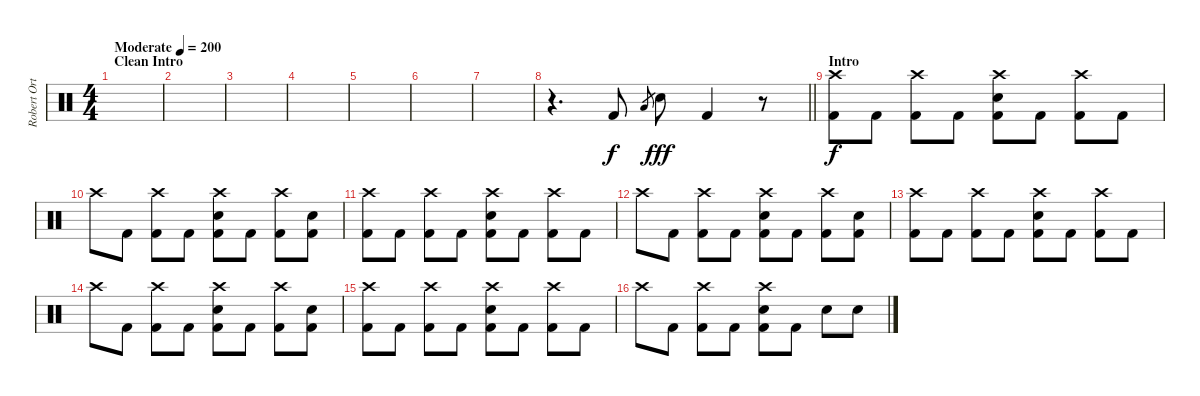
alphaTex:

\track ("Robert Ortiz" "Robert Ort") {instrument percussion}
\staff {score}
\articulation defaults
\ts (4 4)
\section ("" "Clean Intro")
\tempo (200 "Moderate")
\clef neutral
\ks c
|
|
|
|
|
|
|
\barLineRight lightlight
r.4{d volume 16} "Kick (hit) 2".8 "Low Floor Tom (hit)".8{gr dy f} "Electric Snare (hit)".8{dy fff} "Kick (hit) 2".4 r.8 |
\section ("" "Intro")
("Crash high (hit)" "Kick (hit) 2").8{dy f volume 12} "Kick (hit) 2".8 ("Crash high (hit)" "Kick (hit) 2").8 "Kick (hit) 2".8 ("Crash high (hit)" "Electric Snare (hit)" "Kick (hit) 2").8 "Kick (hit) 2".8 ("Crash high (hit)" "Kick (hit) 2").8 "Kick (hit) 2".8 |
"Crash high (hit)".8 "Kick (hit) 2".8 ("Crash high (hit)" "Kick (hit) 2").8 "Kick (hit) 2".8 ("Crash high (hit)" "Electric Snare (hit)" "Kick (hit) 2").8 "Kick (hit) 2".8 ("Crash high (hit)" "Kick (hit) 2").8 ("Electric Snare (hit)" "Kick (hit) 2").8 |
("Crash high (hit)" "Kick (hit) 2").8 "Kick (hit) 2".8 ("Crash high (hit)" "Kick (hit) 2").8 "Kick (hit) 2".8 ("Crash high (hit)" "Electric Snare (hit)" "Kick (hit) 2").8 "Kick (hit) 2".8 ("Crash high (hit)" "Kick (hit) 2").8 "Kick (hit) 2".8 |
"Crash high (hit)".8 "Kick (hit) 2".8 ("Crash high (hit)" "Kick (hit) 2").8 "Kick (hit) 2".8 ("Crash high (hit)" "Electric Snare (hit)" "Kick (hit) 2").8 "Kick (hit) 2".8 ("Crash high (hit)" "Kick (hit) 2").8 ("Electric Snare (hit)" "Kick (hit) 2").8 |
("Crash high (hit)" "Kick (hit) 2").8 "Kick (hit) 2".8 ("Crash high (hit)" "Kick (hit) 2").8 "Kick (hit) 2".8 ("Crash high (hit)" "Electric Snare (hit)" "Kick (hit) 2").8 "Kick (hit) 2".8 ("Crash high (hit)" "Kick (hit) 2").8 "Kick (hit) 2".8 |
"Crash high (hit)".8 "Kick (hit) 2".8 ("Crash high (hit)" "Kick (hit) 2").8 "Kick (hit) 2".8 ("Crash high (hit)" "Electric Snare (hit)" "Kick (hit) 2").8 "Kick (hit) 2".8 ("Crash high (hit)" "Kick (hit) 2").8 ("Electric Snare (hit)" "Kick (hit) 2").8 |
("Crash high (hit)" "Kick (hit) 2").8 "Kick (hit) 2".8 ("Crash high (hit)" "Kick (hit) 2").8 "Kick (hit) 2".8 ("Crash high (hit)" "Electric Snare (hit)" "Kick (hit) 2").8 "Kick (hit) 2".8 ("Crash high (hit)" "Kick (hit) 2").8 "Kick (hit) 2".8 |
"Crash high (hit)".8 "Kick (hit) 2".8 ("Crash high (hit)" "Kick (hit) 2").8 "Kick (hit) 2".8 ("Crash high (hit)" "Electric Snare (hit)" "Kick (hit) 2").8 "Kick (hit) 2".8 "Electric Snare (hit)".8 "Electric Snare (hit)".8
